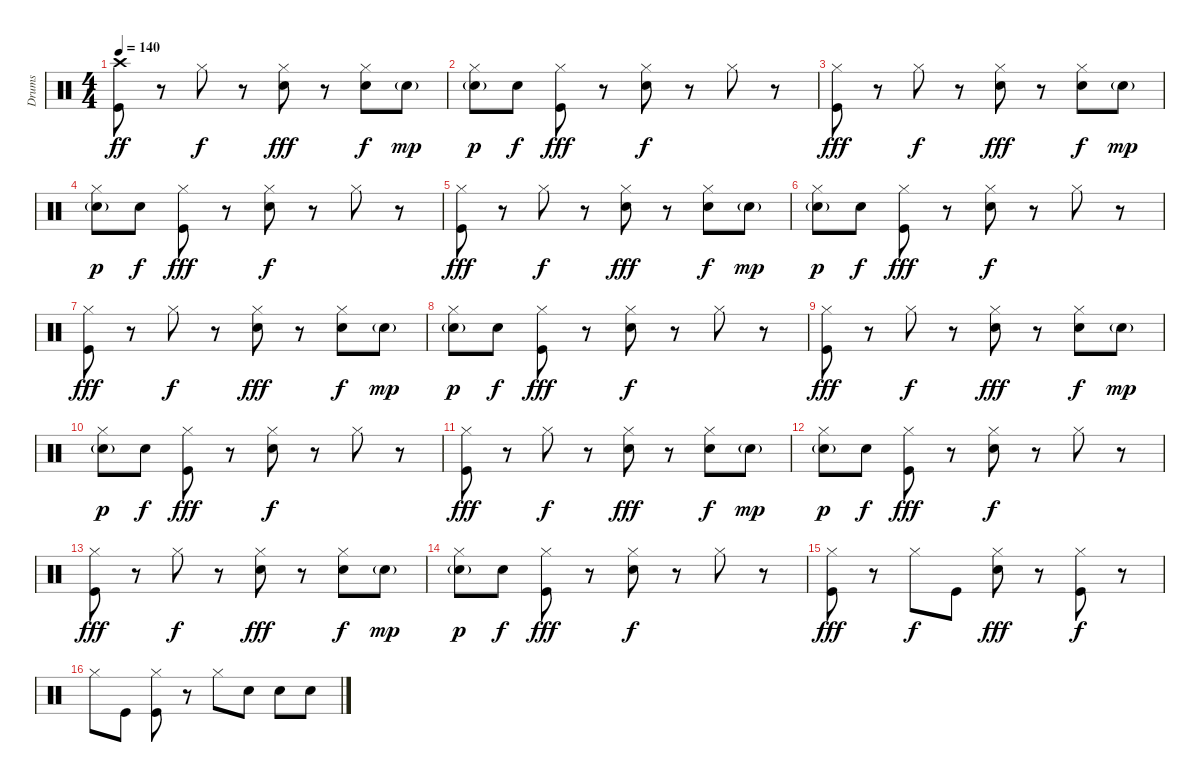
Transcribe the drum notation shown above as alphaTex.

\track ("Drums" "Drums") {instrument percussion}
\staff {score}
\articulation defaults
\ts (4 4)
\tempo 140
\clef neutral
\ks c
("Crash high (hit)" "Kick (hit)").8{dy ff} r.8 "Hi-Hat (closed)".8{dy f} r.8 ("Hi-Hat (closed)" "Snare (hit) 2").8{dy fff} r.8 ("Hi-Hat (closed)" "Snare (hit) 2").8{dy f} "Snare (hit) 2"{g}.8{dy mp} |
("Hi-Hat (closed)" "Snare (hit) 2"{g}).8{dy p} "Snare (hit) 2".8{dy f} ("Hi-Hat (closed)" "Kick (hit)").8{dy fff} r.8 ("Hi-Hat (closed)" "Snare (hit) 2").8{dy f} r.8 "Hi-Hat (closed)".8 r.8 |
("Hi-Hat (closed)" "Kick (hit)").8{dy fff} r.8 "Hi-Hat (closed)".8{dy f} r.8 ("Hi-Hat (closed)" "Snare (hit) 2").8{dy fff} r.8 ("Hi-Hat (closed)" "Snare (hit) 2").8{dy f} "Snare (hit) 2"{g}.8{dy mp} |
("Hi-Hat (closed)" "Snare (hit) 2"{g}).8{dy p} "Snare (hit) 2".8{dy f} ("Hi-Hat (closed)" "Kick (hit)").8{dy fff} r.8 ("Hi-Hat (closed)" "Snare (hit) 2").8{dy f} r.8 "Hi-Hat (closed)".8 r.8 |
("Hi-Hat (closed)" "Kick (hit)").8{dy fff} r.8 "Hi-Hat (closed)".8{dy f} r.8 ("Hi-Hat (closed)" "Snare (hit) 2").8{dy fff} r.8 ("Hi-Hat (closed)" "Snare (hit) 2").8{dy f} "Snare (hit) 2"{g}.8{dy mp} |
("Hi-Hat (closed)" "Snare (hit) 2"{g}).8{dy p} "Snare (hit) 2".8{dy f} ("Hi-Hat (closed)" "Kick (hit)").8{dy fff} r.8 ("Hi-Hat (closed)" "Snare (hit) 2").8{dy f} r.8 "Hi-Hat (closed)".8 r.8 |
("Hi-Hat (closed)" "Kick (hit)").8{dy fff} r.8 "Hi-Hat (closed)".8{dy f} r.8 ("Hi-Hat (closed)" "Snare (hit) 2").8{dy fff} r.8 ("Hi-Hat (closed)" "Snare (hit) 2").8{dy f} "Snare (hit) 2"{g}.8{dy mp} |
("Hi-Hat (closed)" "Snare (hit) 2"{g}).8{dy p} "Snare (hit) 2".8{dy f} ("Hi-Hat (closed)" "Kick (hit)").8{dy fff} r.8 ("Hi-Hat (closed)" "Snare (hit) 2").8{dy f} r.8 "Hi-Hat (closed)".8 r.8 |
("Hi-Hat (closed)" "Kick (hit)").8{dy fff} r.8 "Hi-Hat (closed)".8{dy f} r.8 ("Hi-Hat (closed)" "Snare (hit) 2").8{dy fff} r.8 ("Hi-Hat (closed)" "Snare (hit) 2").8{dy f} "Snare (hit) 2"{g}.8{dy mp} |
("Hi-Hat (closed)" "Snare (hit) 2"{g}).8{dy p} "Snare (hit) 2".8{dy f} ("Hi-Hat (closed)" "Kick (hit)").8{dy fff} r.8 ("Hi-Hat (closed)" "Snare (hit) 2").8{dy f} r.8 "Hi-Hat (closed)".8 r.8 |
("Hi-Hat (closed)" "Kick (hit)").8{dy fff} r.8 "Hi-Hat (closed)".8{dy f} r.8 ("Hi-Hat (closed)" "Snare (hit) 2").8{dy fff} r.8 ("Hi-Hat (closed)" "Snare (hit) 2").8{dy f} "Snare (hit) 2"{g}.8{dy mp} |
("Hi-Hat (closed)" "Snare (hit) 2"{g}).8{dy p} "Snare (hit) 2".8{dy f} ("Hi-Hat (closed)" "Kick (hit)").8{dy fff} r.8 ("Hi-Hat (closed)" "Snare (hit) 2").8{dy f} r.8 "Hi-Hat (closed)".8 r.8 |
("Hi-Hat (closed)" "Kick (hit)").8{dy fff} r.8 "Hi-Hat (closed)".8{dy f} r.8 ("Hi-Hat (closed)" "Snare (hit) 2").8{dy fff} r.8 ("Hi-Hat (closed)" "Snare (hit) 2").8{dy f} "Snare (hit) 2"{g}.8{dy mp} |
("Hi-Hat (closed)" "Snare (hit) 2"{g}).8{dy p} "Snare (hit) 2".8{dy f} ("Hi-Hat (closed)" "Kick (hit)").8{dy fff} r.8 ("Hi-Hat (closed)" "Snare (hit) 2").8{dy f} r.8 "Hi-Hat (closed)".8 r.8 |
("Hi-Hat (closed)" "Kick (hit)").8{dy fff} r.8 "Hi-Hat (closed)".8{dy f} "Kick (hit)".8 ("Hi-Hat (closed)" "Snare (hit) 2").8{dy fff} r.8 ("Hi-Hat (closed)" "Kick (hit)").8{dy f} r.8 |
"Hi-Hat (closed)".8 "Kick (hit)".8 ("Hi-Hat (closed)" "Kick (hit)").8 r.8 "Hi-Hat (closed)".8 "Snare (hit) 2".8 "Snare (hit) 2".8 "Snare (hit) 2".8
